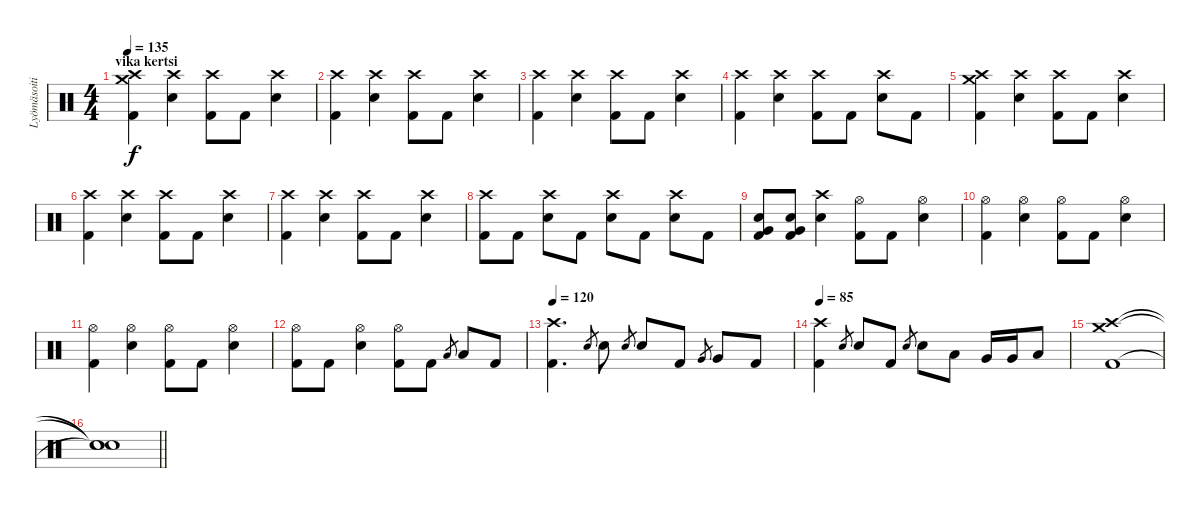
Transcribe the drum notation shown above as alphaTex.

\track ("Lyömäsoitin" "Lyömäsoiti") {instrument percussion}
\staff {score}
\articulation defaults
\ts (4 4)
\section ("" "vika kertsi")
\tempo 135
\clef neutral
\ks c
("Crash high (hit)" "Crash medium (hit)" "Kick (hit) 2").4{dy f} ("Crash high (hit)" "Electric Snare (hit)").4 ("Crash high (hit)" "Kick (hit) 2").8 "Kick (hit) 2".8 ("Crash high (hit)" "Electric Snare (hit)").4 |
("Crash high (hit)" "Kick (hit) 2").4 ("Crash high (hit)" "Electric Snare (hit)").4 ("Crash high (hit)" "Kick (hit) 2").8 "Kick (hit) 2".8 ("Crash high (hit)" "Electric Snare (hit)").4 |
("Crash high (hit)" "Kick (hit) 2").4 ("Crash high (hit)" "Electric Snare (hit)").4 ("Crash high (hit)" "Kick (hit) 2").8 "Kick (hit) 2".8 ("Crash high (hit)" "Electric Snare (hit)").4 |
("Crash high (hit)" "Kick (hit) 2").4 ("Crash high (hit)" "Electric Snare (hit)").4 ("Crash high (hit)" "Kick (hit) 2").8 "Kick (hit) 2".8 ("Crash high (hit)" "Electric Snare (hit)").8 "Kick (hit) 2".8 |
("Crash high (hit)" "Crash medium (hit)" "Kick (hit) 2").4 ("Crash high (hit)" "Electric Snare (hit)").4 ("Crash high (hit)" "Kick (hit) 2").8 "Kick (hit) 2".8 ("Crash high (hit)" "Electric Snare (hit)").4 |
("Crash high (hit)" "Kick (hit) 2").4 ("Crash high (hit)" "Electric Snare (hit)").4 ("Crash high (hit)" "Kick (hit) 2").8 "Kick (hit) 2".8 ("Crash high (hit)" "Electric Snare (hit)").4 |
("Crash high (hit)" "Kick (hit) 2").4 ("Crash high (hit)" "Electric Snare (hit)").4 ("Crash high (hit)" "Kick (hit) 2").8 "Kick (hit) 2".8 ("Crash high (hit)" "Electric Snare (hit)").4 |
("Crash high (hit)" "Kick (hit) 2").8 "Kick (hit) 2".8 ("Crash high (hit)" "Electric Snare (hit)").8 "Kick (hit) 2".8 ("Crash high (hit)" "Electric Snare (hit)").8 "Kick (hit) 2".8 ("Crash high (hit)" "Electric Snare (hit)").8 "Kick (hit) 2".8 |
("Electric Snare (hit)" "Very Low Tom (hit)" "Kick (hit) 2").8 ("Electric Snare (hit)" "Very Low Tom (hit)" "Kick (hit) 2").8 ("Crash high (hit)" "Electric Snare (hit)").4 ("Hi-Hat (open)" "Kick (hit) 2").8 "Kick (hit) 2".8 ("Hi-Hat (open)" "Electric Snare (hit)").4 |
("Hi-Hat (open)" "Kick (hit) 2").4 ("Hi-Hat (open)" "Electric Snare (hit)").4 ("Hi-Hat (open)" "Kick (hit) 2").8 "Kick (hit) 2".8 ("Hi-Hat (open)" "Electric Snare (hit)").4 |
("Hi-Hat (open)" "Kick (hit) 2").4 ("Hi-Hat (open)" "Electric Snare (hit)").4 ("Hi-Hat (open)" "Kick (hit) 2").8 "Kick (hit) 2".8 ("Hi-Hat (open)" "Electric Snare (hit)").4 |
("Hi-Hat (open)" "Kick (hit) 2").8 "Kick (hit) 2".8 ("Hi-Hat (open)" "Electric Snare (hit)").4 ("Hi-Hat (open)" "Kick (hit) 2").8 "Kick (hit) 2".8 "Low Tom (hit)".8{gr} "Low Tom (hit)".8 "Kick (hit) 2".8 |
\tempo 120
("Crash high (hit)" "Kick (hit) 2").4{d} "Electric Snare (hit)".8{gr} "Electric Snare (hit)".8 "Electric Snare (hit)".8{gr} "Electric Snare (hit)".8 "Kick (hit) 2".8 "Very Low Tom (hit)".8{gr} "Very Low Tom (hit)".8 "Kick (hit) 2".8 |
\tempo 85
("Crash high (hit)" "Kick (hit) 2").4 "Electric Snare (hit)".8{gr} "Electric Snare (hit)".8 "Kick (hit) 2".8 "Electric Snare (hit)".8{gr} "Electric Snare (hit)".8 "Low Tom (hit)".8 "Very Low Tom (hit)".16 "Very Low Tom (hit)".16 "Low Floor Tom (hit)".8 |
("Crash high (hit)" "Crash medium (hit)" "Kick (hit) 2").1 |
\barLineRight lightlight
("Snare (hit)"{t} "Snare (hit)"{t} "Snare (hit)"{t}).1
